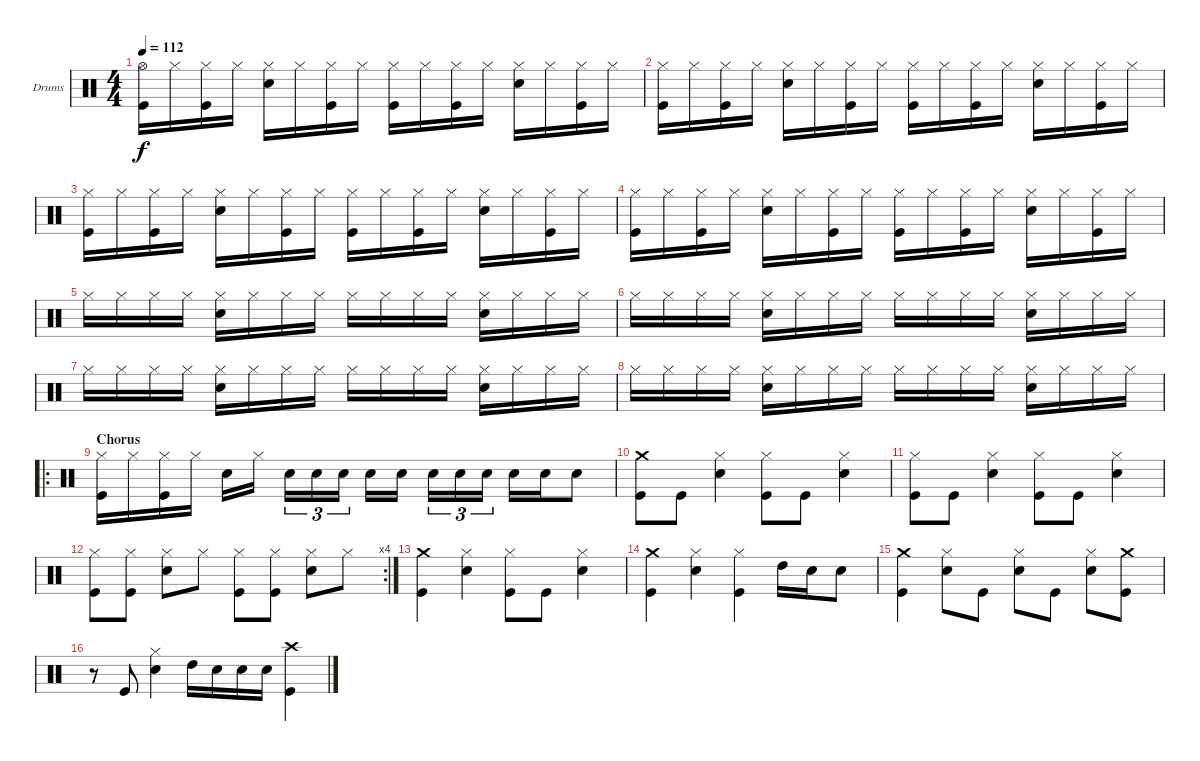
\defaultSystemsLayout 4
\bracketExtendMode groupsimilarinstruments
\firstSystemTrackNameOrientation horizontal
\otherSystemsTrackNameOrientation horizontal
\track ("Drumkit" "Drums") {instrument percussion}
\staff {score}
\articulation defaults
\ts (4 4)
\tempo 112
\clef neutral
\ks c
("Hi-Hat (open)" "Kick (hit)").16{dy f} "Hi-Hat (closed)".16 ("Hi-Hat (closed)" "Kick (hit)").16 "Hi-Hat (closed)".16 ("Hi-Hat (closed)" "Snare (hit) 2").16 "Hi-Hat (closed)".16 ("Hi-Hat (closed)" "Kick (hit)").16 "Hi-Hat (closed)".16 ("Hi-Hat (closed)" "Kick (hit)").16 "Hi-Hat (closed)".16 ("Hi-Hat (closed)" "Kick (hit)").16 "Hi-Hat (closed)".16 ("Hi-Hat (closed)" "Snare (hit) 2").16 "Hi-Hat (closed)".16 ("Hi-Hat (closed)" "Kick (hit)").16 "Hi-Hat (closed)".16 |
("Hi-Hat (closed)" "Kick (hit)").16 "Hi-Hat (closed)".16 ("Hi-Hat (closed)" "Kick (hit)").16 "Hi-Hat (closed)".16 ("Hi-Hat (closed)" "Snare (hit) 2").16 "Hi-Hat (closed)".16 ("Hi-Hat (closed)" "Kick (hit)").16 "Hi-Hat (closed)".16 ("Hi-Hat (closed)" "Kick (hit)").16 "Hi-Hat (closed)".16 ("Hi-Hat (closed)" "Kick (hit)").16 "Hi-Hat (closed)".16 ("Hi-Hat (closed)" "Snare (hit) 2").16 "Hi-Hat (closed)".16 ("Hi-Hat (closed)" "Kick (hit)").16 "Hi-Hat (closed)".16 |
("Hi-Hat (closed)" "Kick (hit)").16 "Hi-Hat (closed)".16 ("Hi-Hat (closed)" "Kick (hit)").16 "Hi-Hat (closed)".16 ("Hi-Hat (closed)" "Snare (hit) 2").16 "Hi-Hat (closed)".16 ("Hi-Hat (closed)" "Kick (hit)").16 "Hi-Hat (closed)".16 ("Hi-Hat (closed)" "Kick (hit)").16 "Hi-Hat (closed)".16 ("Hi-Hat (closed)" "Kick (hit)").16 "Hi-Hat (closed)".16 ("Hi-Hat (closed)" "Snare (hit) 2").16 "Hi-Hat (closed)".16 ("Hi-Hat (closed)" "Kick (hit)").16 "Hi-Hat (closed)".16 |
("Hi-Hat (closed)" "Kick (hit)").16 "Hi-Hat (closed)".16 ("Hi-Hat (closed)" "Kick (hit)").16 "Hi-Hat (closed)".16 ("Hi-Hat (closed)" "Snare (hit) 2").16 "Hi-Hat (closed)".16 ("Hi-Hat (closed)" "Kick (hit)").16 "Hi-Hat (closed)".16 ("Hi-Hat (closed)" "Kick (hit)").16 "Hi-Hat (closed)".16 ("Hi-Hat (closed)" "Kick (hit)").16 "Hi-Hat (closed)".16 ("Hi-Hat (closed)" "Snare (hit) 2").16 "Hi-Hat (closed)".16 ("Hi-Hat (closed)" "Kick (hit)").16 "Hi-Hat (closed)".16 |
"Hi-Hat (closed)".16 "Hi-Hat (closed)".16 "Hi-Hat (closed)".16 "Hi-Hat (closed)".16 ("Hi-Hat (closed)" "Snare (hit) 2").16 "Hi-Hat (closed)".16 "Hi-Hat (closed)".16 "Hi-Hat (closed)".16 "Hi-Hat (closed)".16 "Hi-Hat (closed)".16 "Hi-Hat (closed)".16 "Hi-Hat (closed)".16 ("Hi-Hat (closed)" "Snare (hit) 2").16 "Hi-Hat (closed)".16 "Hi-Hat (closed)".16 "Hi-Hat (closed)".16 |
"Hi-Hat (closed)".16 "Hi-Hat (closed)".16 "Hi-Hat (closed)".16 "Hi-Hat (closed)".16 ("Hi-Hat (closed)" "Snare (hit) 2").16 "Hi-Hat (closed)".16 "Hi-Hat (closed)".16 "Hi-Hat (closed)".16 "Hi-Hat (closed)".16 "Hi-Hat (closed)".16 "Hi-Hat (closed)".16 "Hi-Hat (closed)".16 ("Hi-Hat (closed)" "Snare (hit) 2").16 "Hi-Hat (closed)".16 "Hi-Hat (closed)".16 "Hi-Hat (closed)".16 |
"Hi-Hat (closed)".16 "Hi-Hat (closed)".16 "Hi-Hat (closed)".16 "Hi-Hat (closed)".16 ("Hi-Hat (closed)" "Snare (hit) 2").16 "Hi-Hat (closed)".16 "Hi-Hat (closed)".16 "Hi-Hat (closed)".16 "Hi-Hat (closed)".16 "Hi-Hat (closed)".16 "Hi-Hat (closed)".16 "Hi-Hat (closed)".16 ("Hi-Hat (closed)" "Snare (hit) 2").16 "Hi-Hat (closed)".16 "Hi-Hat (closed)".16 "Hi-Hat (closed)".16 |
"Hi-Hat (closed)".16 "Hi-Hat (closed)".16 "Hi-Hat (closed)".16 "Hi-Hat (closed)".16 ("Hi-Hat (closed)" "Snare (hit) 2").16 "Hi-Hat (closed)".16 "Hi-Hat (closed)".16 "Hi-Hat (closed)".16 "Hi-Hat (closed)".16 "Hi-Hat (closed)".16 "Hi-Hat (closed)".16 "Hi-Hat (closed)".16 ("Hi-Hat (closed)" "Snare (hit) 2").16 "Hi-Hat (closed)".16 "Hi-Hat (closed)".16 "Hi-Hat (closed)".16 |
\ro
\section ("" "Chorus")
("Hi-Hat (closed)" "Kick (hit)").16 "Hi-Hat (closed)".16 ("Hi-Hat (closed)" "Kick (hit)").16 "Hi-Hat (closed)".16 "Snare (hit) 2".16 "Hi-Hat (closed)".16 "Snare (hit) 2".16{tu (3 2)} "Snare (hit) 2".16{tu (3 2)} "Snare (hit) 2".16{tu (3 2)} "Snare (hit) 2".16 "Snare (hit) 2".16 "Snare (hit) 2".16{tu (3 2)} "Snare (hit) 2".16{tu (3 2)} "Snare (hit) 2".16{tu (3 2)} "Snare (hit) 2".16 "Snare (hit) 2".16 "Snare (hit) 2".8 |
("Crash medium (hit)" "Kick (hit)").8 "Kick (hit)".8 ("Hi-Hat (closed)" "Snare (hit) 2").4 ("Hi-Hat (closed)" "Kick (hit)").8 "Kick (hit)".8 ("Hi-Hat (closed)" "Snare (hit) 2").4 |
("Hi-Hat (closed)" "Kick (hit)").8 "Kick (hit)".8 ("Hi-Hat (closed)" "Snare (hit) 2").4 ("Hi-Hat (closed)" "Kick (hit)").8 "Kick (hit)".8 ("Hi-Hat (closed)" "Snare (hit) 2").4 |
\rc 4
("Hi-Hat (closed)" "Kick (hit)").8 ("Hi-Hat (closed)" "Kick (hit)").8 ("Hi-Hat (closed)" "Snare (hit) 2").8 "Hi-Hat (closed)".8 ("Hi-Hat (closed)" "Kick (hit)").8 ("Hi-Hat (closed)" "Kick (hit)").8 ("Hi-Hat (closed)" "Snare (hit) 2").8 "Hi-Hat (closed)".8 |
("Crash medium (hit)" "Kick (hit)").4 ("Hi-Hat (closed)" "Snare (hit) 2").4 ("Hi-Hat (closed)" "Kick (hit)").8 "Kick (hit)".8 ("Hi-Hat (closed)" "Snare (hit) 2").4 |
("Crash medium (hit)" "Kick (hit)").4 ("Hi-Hat (closed)" "Snare (hit) 2").4 ("Hi-Hat (closed)" "Kick (hit)").4 "High Tom (hit)".16 "Snare (hit) 2".16 "Snare (hit) 2".8 |
("Crash medium (hit)" "Kick (hit)").4 ("Hi-Hat (closed)" "Snare (hit) 2").8 "Kick (hit)".8 ("Hi-Hat (closed)" "Snare (hit) 2").8 "Kick (hit)".8 ("Hi-Hat (closed)" "Snare (hit) 2").8 ("Crash medium (hit)" "Kick (hit)").8 |
r.8 "Kick (hit)".8 ("Hi-Hat (closed)" "Snare (hit) 2").4 "High Tom (hit)".16 "Snare (hit) 2".16 "Snare (hit) 2".16 "Snare (hit) 2".16 ("Crash high (hit)" "Kick (hit)").4
